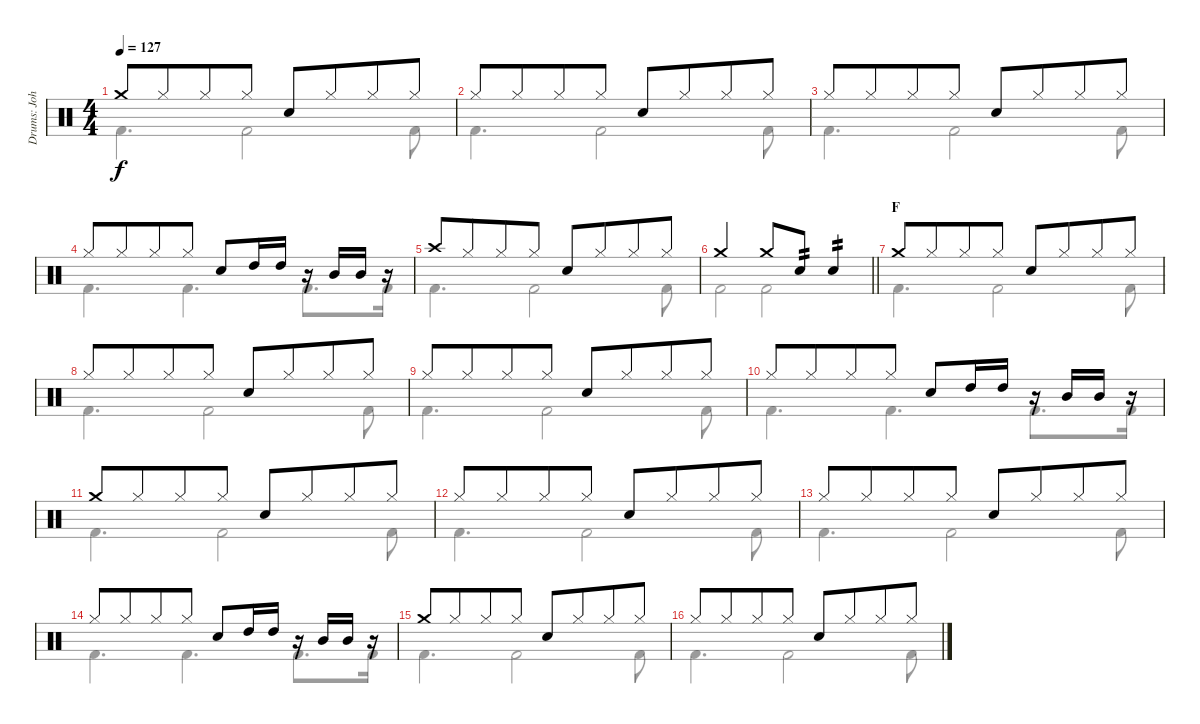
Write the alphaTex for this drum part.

\track ("Drums: John" "Drums: Joh") {instrument percussion}
\staff {score}
\articulation defaults
\voice
\ts (4 4)
\tempo 127
\clef neutral
\ks c "Crash medium (hit)".8{dy f} "Hi-Hat (closed)".8{beam merge} "Hi-Hat (closed)".8 "Hi-Hat (closed)".8 "Snare (hit) 2".8 "Hi-Hat (closed)".8{beam merge} "Hi-Hat (closed)".8 "Hi-Hat (closed)".8
|
"Hi-Hat (closed)".8 "Hi-Hat (closed)".8{beam merge} "Hi-Hat (closed)".8 "Hi-Hat (closed)".8 "Snare (hit) 2".8 "Hi-Hat (closed)".8{beam merge} "Hi-Hat (closed)".8 "Hi-Hat (closed)".8 |
"Hi-Hat (closed)".8 "Hi-Hat (closed)".8{beam merge} "Hi-Hat (closed)".8 "Hi-Hat (closed)".8 "Snare (hit) 2".8 "Hi-Hat (closed)".8{beam merge} "Hi-Hat (closed)".8 "Hi-Hat (closed)".8 |
"Hi-Hat (closed)".8 "Hi-Hat (closed)".8{beam merge} "Hi-Hat (closed)".8 "Hi-Hat (closed)".8 "Snare (hit) 2".8 "High Tom (hit)".16 "High Tom (hit)".16 r.16 "Mid Tom (hit)".16 "Mid Tom (hit)".16 r.16 |
"Crash high (hit)".8 "Hi-Hat (closed)".8{beam merge} "Hi-Hat (closed)".8 "Hi-Hat (closed)".8 "Snare (hit) 2".8 "Hi-Hat (closed)".8{beam merge} "Hi-Hat (closed)".8 "Hi-Hat (closed)".8 |
\barLineRight lightlight "Crash medium (hit)".2 "Crash medium (hit)".8 "Snare (hit) 2".8{tp 2} "Snare (hit) 2".4{tp 2}
|
\section ("" "F")
"Crash medium (hit)".8 "Hi-Hat (closed)".8{beam merge} "Hi-Hat (closed)".8 "Hi-Hat (closed)".8 "Snare (hit) 2".8 "Hi-Hat (closed)".8{beam merge} "Hi-Hat (closed)".8 "Hi-Hat (closed)".8 |
"Hi-Hat (closed)".8 "Hi-Hat (closed)".8{beam merge} "Hi-Hat (closed)".8 "Hi-Hat (closed)".8 "Snare (hit) 2".8 "Hi-Hat (closed)".8{beam merge} "Hi-Hat (closed)".8 "Hi-Hat (closed)".8 |
"Hi-Hat (closed)".8 "Hi-Hat (closed)".8{beam merge} "Hi-Hat (closed)".8 "Hi-Hat (closed)".8 "Snare (hit) 2".8 "Hi-Hat (closed)".8{beam merge} "Hi-Hat (closed)".8 "Hi-Hat (closed)".8 |
"Hi-Hat (closed)".8 "Hi-Hat (closed)".8{beam merge} "Hi-Hat (closed)".8 "Hi-Hat (closed)".8 "Snare (hit) 2".8 "High Tom (hit)".16 "High Tom (hit)".16 r.16 "Mid Tom (hit)".16 "Mid Tom (hit)".16 r.16 |
"Crash medium (hit)".8 "Hi-Hat (closed)".8{beam merge} "Hi-Hat (closed)".8 "Hi-Hat (closed)".8 "Snare (hit) 2".8 "Hi-Hat (closed)".8{beam merge} "Hi-Hat (closed)".8 "Hi-Hat (closed)".8 |
"Hi-Hat (closed)".8 "Hi-Hat (closed)".8{beam merge} "Hi-Hat (closed)".8 "Hi-Hat (closed)".8 "Snare (hit) 2".8 "Hi-Hat (closed)".8{beam merge} "Hi-Hat (closed)".8 "Hi-Hat (closed)".8 |
"Hi-Hat (closed)".8 "Hi-Hat (closed)".8{beam merge} "Hi-Hat (closed)".8 "Hi-Hat (closed)".8 "Snare (hit) 2".8 "Hi-Hat (closed)".8{beam merge} "Hi-Hat (closed)".8 "Hi-Hat (closed)".8 |
"Hi-Hat (closed)".8 "Hi-Hat (closed)".8{beam merge} "Hi-Hat (closed)".8 "Hi-Hat (closed)".8 "Snare (hit) 2".8 "High Tom (hit)".16 "High Tom (hit)".16 r.16 "Mid Tom (hit)".16 "Mid Tom (hit)".16 r.16 |
"Crash medium (hit)".8 "Hi-Hat (closed)".8{beam merge} "Hi-Hat (closed)".8 "Hi-Hat (closed)".8 "Snare (hit) 2".8 "Hi-Hat (closed)".8{beam merge} "Hi-Hat (closed)".8 "Hi-Hat (closed)".8 |
"Hi-Hat (closed)".8 "Hi-Hat (closed)".8{beam merge} "Hi-Hat (closed)".8 "Hi-Hat (closed)".8 "Snare (hit) 2".8 "Hi-Hat (closed)".8{beam merge} "Hi-Hat (closed)".8 "Hi-Hat (closed)".8
\voice
\clef neutral
\ottava regular
\simile none
\ks c "Kick (hit) 2".4{d dy f} "Kick (hit) 2".2 "Kick (hit) 2".8
|
"Kick (hit) 2".4{d} "Kick (hit) 2".2 "Kick (hit) 2".8 |
"Kick (hit) 2".4{d} "Kick (hit) 2".2 "Kick (hit) 2".8 |
"Kick (hit) 2".4{d} "Kick (hit) 2".4{d} "Kick (hit) 2".8{d} "Kick (hit) 2".16 |
"Kick (hit) 2".4{d} "Kick (hit) 2".2 "Kick (hit) 2".8 |
\barLineRight lightlight "Kick (hit) 2".2 "Kick (hit) 2".2
|
"Kick (hit) 2".4{d} "Kick (hit) 2".2 "Kick (hit) 2".8 |
"Kick (hit) 2".4{d} "Kick (hit) 2".2 "Kick (hit) 2".8 |
"Kick (hit) 2".4{d} "Kick (hit) 2".2 "Kick (hit) 2".8 |
"Kick (hit) 2".4{d} "Kick (hit) 2".4{d} "Kick (hit) 2".8{d} "Kick (hit) 2".16 |
"Kick (hit) 2".4{d} "Kick (hit) 2".2 "Kick (hit) 2".8 |
"Kick (hit) 2".4{d} "Kick (hit) 2".2 "Kick (hit) 2".8 |
"Kick (hit) 2".4{d} "Kick (hit) 2".2 "Kick (hit) 2".8 |
"Kick (hit) 2".4{d} "Kick (hit) 2".4{d} "Kick (hit) 2".8{d} "Kick (hit) 2".16 |
"Kick (hit) 2".4{d} "Kick (hit) 2".2 "Kick (hit) 2".8 |
"Kick (hit) 2".4{d} "Kick (hit) 2".2 "Kick (hit) 2".8
